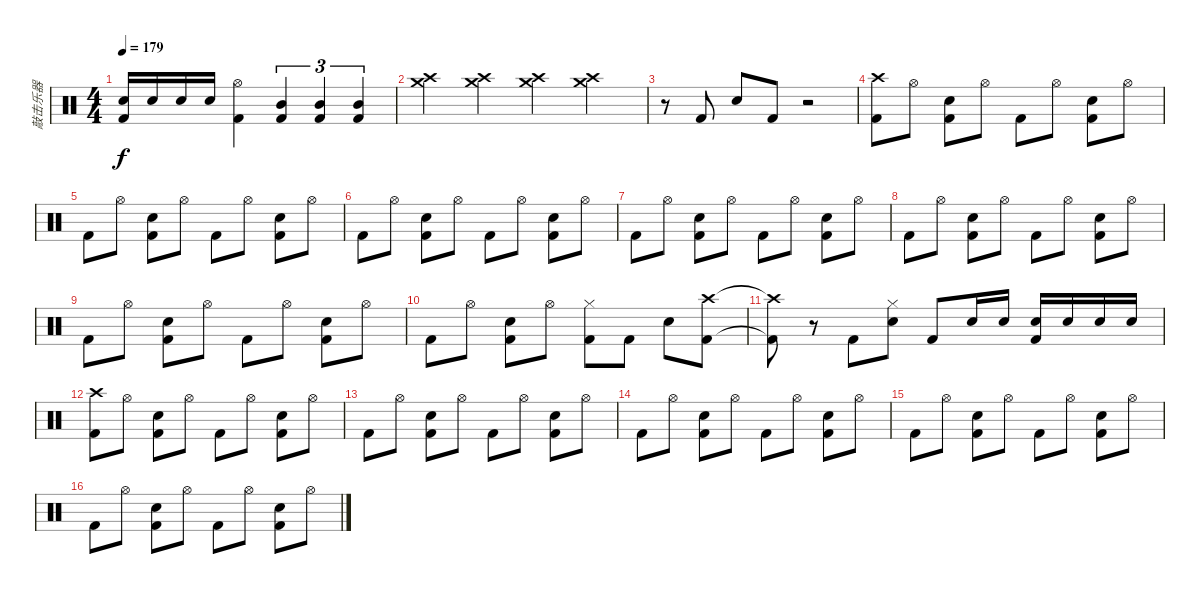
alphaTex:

\track ("敲击乐器" "敲击乐器") {instrument percussion}
\staff {score}
\articulation defaults
\ts (4 4)
\tempo 179
\clef neutral
\ks c
("Snare (hit) 2" "Kick (hit) 2").16{dy f} "Snare (hit) 2".16 "Snare (hit) 2".16 "Snare (hit) 2".16 ("Kick (hit) 2" "Hi-Hat (open)").4 ("Kick (hit) 2" "Mid Tom (hit)").4{tu (3 2)} ("Mid Tom (hit)" "Kick (hit) 2").4{tu (3 2)} ("Mid Tom (hit)" "Kick (hit) 2").4{tu (3 2)} |
("Crash high (hit)" "Crash medium (hit)").4 ("Crash high (hit)" "Crash medium (hit)").4 ("Crash high (hit)" "Crash medium (hit)").4 ("Crash high (hit)" "Crash medium (hit)").4 |
r.8 "Kick (hit) 2".8 "Snare (hit) 2".8 "Kick (hit) 2".8 r.2 |
("Crash high (hit)" "Kick (hit) 2").8 "Hi-Hat (open)".8 ("Kick (hit) 2" "Snare (hit) 2").8 "Hi-Hat (open)".8 "Kick (hit) 2".8 "Hi-Hat (open)".8 ("Kick (hit) 2" "Snare (hit) 2").8 "Hi-Hat (open)".8 |
"Kick (hit) 2".8 "Hi-Hat (open)".8 ("Kick (hit) 2" "Snare (hit) 2").8 "Hi-Hat (open)".8 "Kick (hit) 2".8 "Hi-Hat (open)".8 ("Kick (hit) 2" "Snare (hit) 2").8 "Hi-Hat (open)".8 |
"Kick (hit) 2".8 "Hi-Hat (open)".8 ("Kick (hit) 2" "Snare (hit) 2").8 "Hi-Hat (open)".8 "Kick (hit) 2".8 "Hi-Hat (open)".8 ("Kick (hit) 2" "Snare (hit) 2").8 "Hi-Hat (open)".8 |
"Kick (hit) 2".8 "Hi-Hat (open)".8 ("Kick (hit) 2" "Snare (hit) 2").8 "Hi-Hat (open)".8 "Kick (hit) 2".8 "Hi-Hat (open)".8 ("Kick (hit) 2" "Snare (hit) 2").8 "Hi-Hat (open)".8 |
"Kick (hit) 2".8 "Hi-Hat (open)".8 ("Kick (hit) 2" "Snare (hit) 2").8 "Hi-Hat (open)".8 "Kick (hit) 2".8 "Hi-Hat (open)".8 ("Kick (hit) 2" "Snare (hit) 2").8 "Hi-Hat (open)".8 |
"Kick (hit) 2".8 "Hi-Hat (open)".8 ("Kick (hit) 2" "Snare (hit) 2").8 "Hi-Hat (open)".8 "Kick (hit) 2".8 "Hi-Hat (open)".8 ("Kick (hit) 2" "Snare (hit) 2").8 "Hi-Hat (open)".8 |
"Kick (hit) 2".8 "Hi-Hat (open)".8 ("Kick (hit) 2" "Snare (hit) 2").8 "Hi-Hat (open)".8 ("Hi-Hat (closed)" "Kick (hit) 2").8 "Kick (hit) 2".8 "Snare (hit) 2".8 ("Kick (hit) 2" "Crash high (hit)").8 |
("Kick (hit) 2"{t} "Crash high (hit)"{t}).8 r.8 "Kick (hit) 2".8 ("Snare (hit) 2" "Hi-Hat (closed)").8 "Kick (hit) 2".8 "Snare (hit) 2".16 "Snare (hit) 2".16 ("Snare (hit) 2" "Kick (hit) 2").16 "Snare (hit) 2".16 "Snare (hit) 2".16 "Snare (hit) 2".16 |
("Crash high (hit)" "Kick (hit) 2").8 "Hi-Hat (open)".8 ("Kick (hit) 2" "Snare (hit) 2").8 "Hi-Hat (open)".8 "Kick (hit) 2".8 "Hi-Hat (open)".8 ("Kick (hit) 2" "Snare (hit) 2").8 "Hi-Hat (open)".8 |
"Kick (hit) 2".8 "Hi-Hat (open)".8 ("Kick (hit) 2" "Snare (hit) 2").8 "Hi-Hat (open)".8 "Kick (hit) 2".8 "Hi-Hat (open)".8 ("Kick (hit) 2" "Snare (hit) 2").8 "Hi-Hat (open)".8 |
"Kick (hit) 2".8 "Hi-Hat (open)".8 ("Kick (hit) 2" "Snare (hit) 2").8 "Hi-Hat (open)".8 "Kick (hit) 2".8 "Hi-Hat (open)".8 ("Kick (hit) 2" "Snare (hit) 2").8 "Hi-Hat (open)".8 |
"Kick (hit) 2".8 "Hi-Hat (open)".8 ("Kick (hit) 2" "Snare (hit) 2").8 "Hi-Hat (open)".8 "Kick (hit) 2".8 "Hi-Hat (open)".8 ("Kick (hit) 2" "Snare (hit) 2").8 "Hi-Hat (open)".8 |
"Kick (hit) 2".8 "Hi-Hat (open)".8 ("Kick (hit) 2" "Snare (hit) 2").8 "Hi-Hat (open)".8 "Kick (hit) 2".8 "Hi-Hat (open)".8 ("Kick (hit) 2" "Snare (hit) 2").8 "Hi-Hat (open)".8
